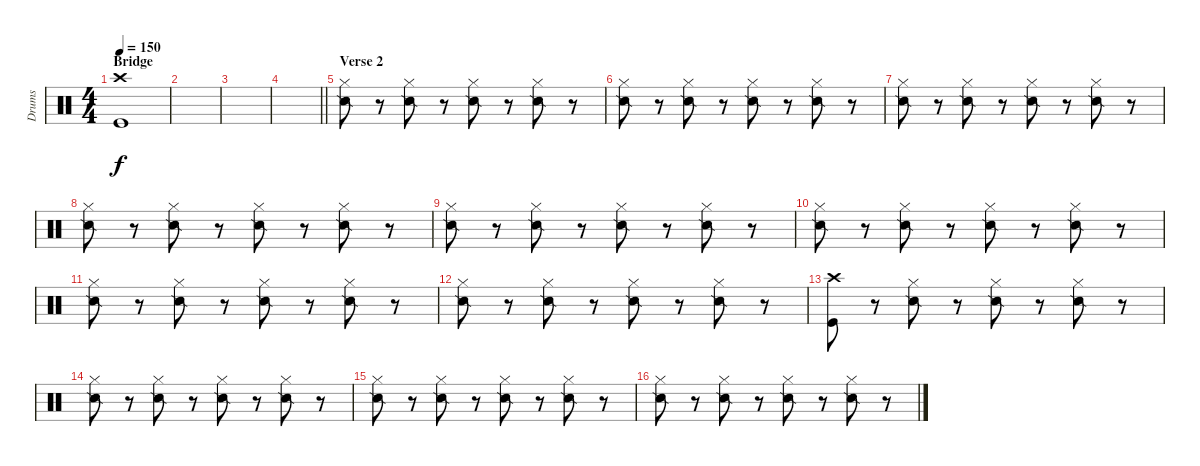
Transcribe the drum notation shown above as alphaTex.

\track ("Drums" "Drums") {instrument percussion}
\staff {score}
\articulation defaults
\ts (4 4)
\section ("" "Bridge")
\tempo 150
\clef neutral
\ks c
("Crash high (hit)" "Kick (hit)").1{dy f} |
|
|
\barLineRight lightlight
|
\section ("" "Verse 2")
("Hi-Hat (closed)" "Snare (side stick) 2").8 r.8 ("Hi-Hat (closed)" "Snare (side stick) 2").8 r.8 ("Hi-Hat (closed)" "Snare (side stick) 2").8 r.8 ("Hi-Hat (closed)" "Snare (side stick) 2").8 r.8 |
("Hi-Hat (closed)" "Snare (side stick) 2").8 r.8 ("Hi-Hat (closed)" "Snare (side stick) 2").8 r.8 ("Hi-Hat (closed)" "Snare (side stick) 2").8 r.8 ("Hi-Hat (closed)" "Snare (side stick) 2").8 r.8 |
("Hi-Hat (closed)" "Snare (side stick) 2").8 r.8 ("Hi-Hat (closed)" "Snare (side stick) 2").8 r.8 ("Hi-Hat (closed)" "Snare (side stick) 2").8 r.8 ("Hi-Hat (closed)" "Snare (side stick) 2").8 r.8 |
("Hi-Hat (closed)" "Snare (side stick) 2").8 r.8 ("Hi-Hat (closed)" "Snare (side stick) 2").8 r.8 ("Hi-Hat (closed)" "Snare (side stick) 2").8 r.8 ("Hi-Hat (closed)" "Snare (side stick) 2").8 r.8 |
("Hi-Hat (closed)" "Snare (side stick) 2").8 r.8 ("Hi-Hat (closed)" "Snare (side stick) 2").8 r.8 ("Hi-Hat (closed)" "Snare (side stick) 2").8 r.8 ("Hi-Hat (closed)" "Snare (side stick) 2").8 r.8 |
("Hi-Hat (closed)" "Snare (side stick) 2").8 r.8 ("Hi-Hat (closed)" "Snare (side stick) 2").8 r.8 ("Hi-Hat (closed)" "Snare (side stick) 2").8 r.8 ("Hi-Hat (closed)" "Snare (side stick) 2").8 r.8 |
("Hi-Hat (closed)" "Snare (side stick) 2").8 r.8 ("Hi-Hat (closed)" "Snare (side stick) 2").8 r.8 ("Hi-Hat (closed)" "Snare (side stick) 2").8 r.8 ("Hi-Hat (closed)" "Snare (side stick) 2").8 r.8 |
("Hi-Hat (closed)" "Snare (side stick) 2").8 r.8 ("Hi-Hat (closed)" "Snare (side stick) 2").8 r.8 ("Hi-Hat (closed)" "Snare (side stick) 2").8 r.8 ("Hi-Hat (closed)" "Snare (side stick) 2").8 r.8 |
("Crash high (hit)" "Kick (hit)").8 r.8 ("Hi-Hat (closed)" "Snare (side stick) 2").8 r.8 ("Hi-Hat (closed)" "Snare (side stick) 2").8 r.8 ("Hi-Hat (closed)" "Snare (side stick) 2").8 r.8 |
("Hi-Hat (closed)" "Snare (side stick) 2").8 r.8 ("Hi-Hat (closed)" "Snare (side stick) 2").8 r.8 ("Hi-Hat (closed)" "Snare (side stick) 2").8 r.8 ("Hi-Hat (closed)" "Snare (side stick) 2").8 r.8 |
("Hi-Hat (closed)" "Snare (side stick) 2").8 r.8 ("Hi-Hat (closed)" "Snare (side stick) 2").8 r.8 ("Hi-Hat (closed)" "Snare (side stick) 2").8 r.8 ("Hi-Hat (closed)" "Snare (side stick) 2").8 r.8 |
("Hi-Hat (closed)" "Snare (side stick) 2").8 r.8 ("Hi-Hat (closed)" "Snare (side stick) 2").8 r.8 ("Hi-Hat (closed)" "Snare (side stick) 2").8 r.8 ("Hi-Hat (closed)" "Snare (side stick) 2").8 r.8
